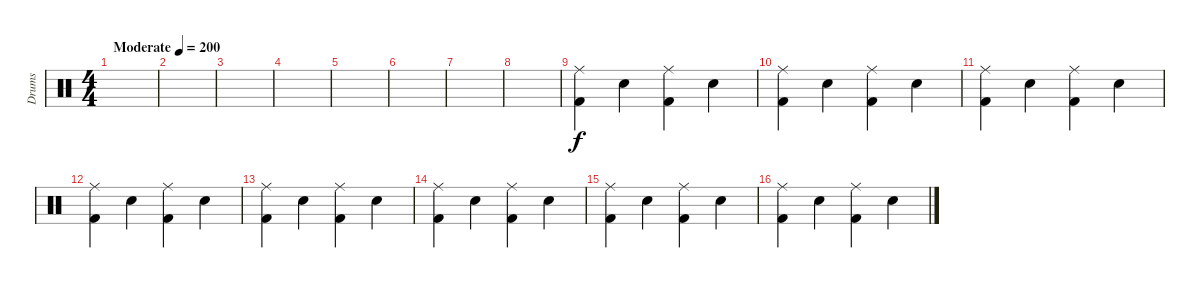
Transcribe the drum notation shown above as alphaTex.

\track ("Drums" "Drums") {instrument percussion}
\staff {score}
\articulation defaults
\ts (4 4)
\tempo (200 "Moderate")
\clef neutral
\ks c
|
|
|
|
|
|
|
|
("Kick (hit) 2" "Ride (middle)").4 "Electric Snare (hit)".4 ("Kick (hit) 2" "Ride (middle)").4 "Electric Snare (hit)".4 |
("Kick (hit) 2" "Ride (middle)").4 "Electric Snare (hit)".4 ("Kick (hit) 2" "Ride (middle)").4 "Electric Snare (hit)".4 |
("Kick (hit) 2" "Ride (middle)").4 "Electric Snare (hit)".4 ("Kick (hit) 2" "Ride (middle)").4 "Electric Snare (hit)".4 |
("Kick (hit) 2" "Ride (middle)").4 "Electric Snare (hit)".4 ("Kick (hit) 2" "Ride (middle)").4 "Electric Snare (hit)".4 |
("Kick (hit) 2" "Ride (middle)").4 "Electric Snare (hit)".4 ("Kick (hit) 2" "Ride (middle)").4 "Electric Snare (hit)".4 |
("Kick (hit) 2" "Ride (middle)").4 "Electric Snare (hit)".4 ("Kick (hit) 2" "Ride (middle)").4 "Electric Snare (hit)".4 |
("Kick (hit) 2" "Ride (middle)").4 "Electric Snare (hit)".4 ("Kick (hit) 2" "Ride (middle)").4 "Electric Snare (hit)".4 |
("Kick (hit) 2" "Ride (middle)").4 "Electric Snare (hit)".4 ("Kick (hit) 2" "Ride (middle)").4 "Electric Snare (hit)".4
